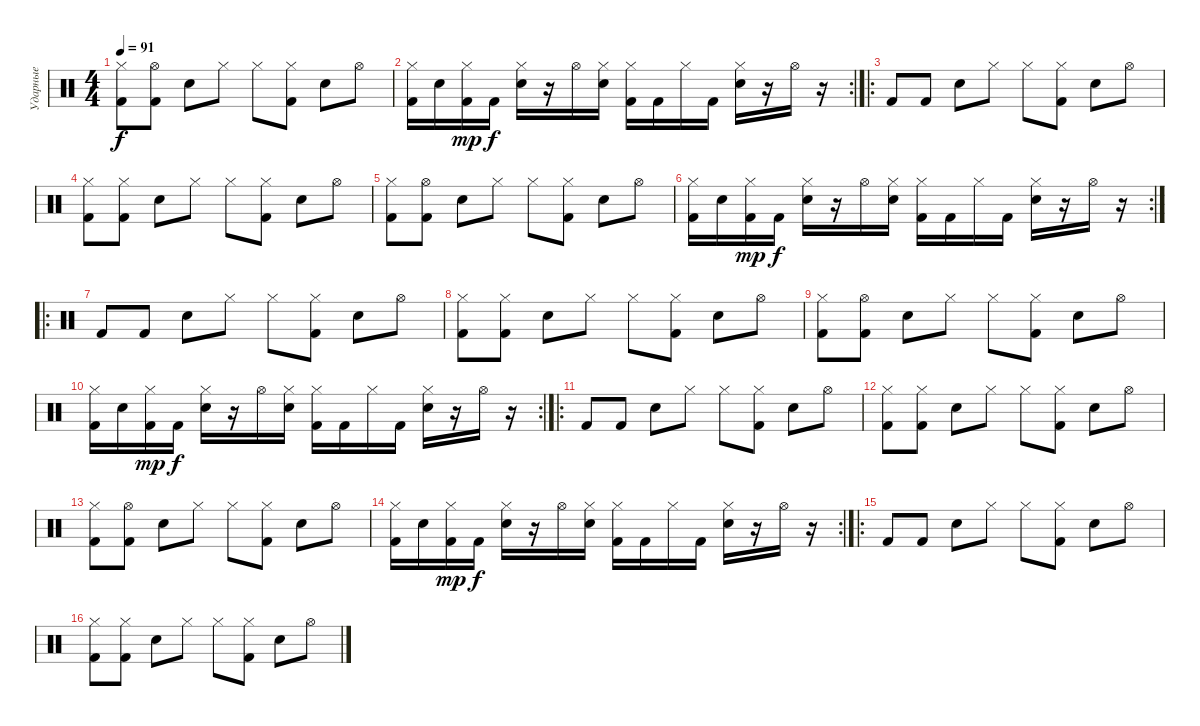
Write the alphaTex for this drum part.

\track ("Ударные" "Ударные") {instrument percussion}
\staff {score}
\articulation defaults
\ts (4 4)
\tempo 91
\clef neutral
\ks c
("Hi-Hat (closed)" "Kick (hit) 2").8{dy f} ("Hi-Hat (open)" "Kick (hit) 2").8 "Snare (hit) 2".8 "Hi-Hat (closed)".8 "Hi-Hat (closed)".8 ("Hi-Hat (closed)" "Kick (hit) 2").8 "Snare (hit) 2".8 "Hi-Hat (open)".8 |
\rc 2
("Hi-Hat (closed)" "Kick (hit) 2").16 "Snare (hit) 2".16 ("Hi-Hat (closed)" "Kick (hit) 2").16{dy mp} "Kick (hit) 2".16{dy f} ("Hi-Hat (closed)" "Snare (hit) 2").16 r.16 "Hi-Hat (open)".16 ("Hi-Hat (closed)" "Snare (hit) 2").16 ("Hi-Hat (closed)" "Kick (hit) 2").16 "Kick (hit) 2".16 "Hi-Hat (closed)".16 "Kick (hit) 2".16 ("Hi-Hat (closed)" "Snare (hit) 2").16 r.16 "Hi-Hat (open)".16 r.16 |
\ro "Kick (hit) 2".8 "Kick (hit) 2".8 "Snare (hit) 2".8 "Hi-Hat (closed)".8 "Hi-Hat (closed)".8
("Hi-Hat (closed)" "Kick (hit) 2").8 "Snare (hit) 2".8 "Hi-Hat (open)".8 |
("Hi-Hat (closed)" "Kick (hit) 2").8 ("Hi-Hat (closed)" "Kick (hit) 2").8 "Snare (hit) 2".8 "Hi-Hat (closed)".8 "Hi-Hat (closed)".8 ("Hi-Hat (closed)" "Kick (hit) 2").8 "Snare (hit) 2".8 "Hi-Hat (open)".8 |
("Hi-Hat (closed)" "Kick (hit) 2").8 ("Hi-Hat (open)" "Kick (hit) 2").8 "Snare (hit) 2".8 "Hi-Hat (closed)".8 "Hi-Hat (closed)".8 ("Hi-Hat (closed)" "Kick (hit) 2").8 "Snare (hit) 2".8 "Hi-Hat (open)".8 |
\rc 2
("Hi-Hat (closed)" "Kick (hit) 2").16 "Snare (hit) 2".16 ("Hi-Hat (closed)" "Kick (hit) 2").16{dy mp} "Kick (hit) 2".16{dy f} ("Hi-Hat (closed)" "Snare (hit) 2").16 r.16 "Hi-Hat (open)".16 ("Hi-Hat (closed)" "Snare (hit) 2").16 ("Hi-Hat (closed)" "Kick (hit) 2").16 "Kick (hit) 2".16 "Hi-Hat (closed)".16 "Kick (hit) 2".16 ("Hi-Hat (closed)" "Snare (hit) 2").16 r.16 "Hi-Hat (open)".16 r.16 |
\ro "Kick (hit) 2".8 "Kick (hit) 2".8 "Snare (hit) 2".8 "Hi-Hat (closed)".8 "Hi-Hat (closed)".8
("Hi-Hat (closed)" "Kick (hit) 2").8 "Snare (hit) 2".8 "Hi-Hat (open)".8 |
("Hi-Hat (closed)" "Kick (hit) 2").8 ("Hi-Hat (closed)" "Kick (hit) 2").8 "Snare (hit) 2".8 "Hi-Hat (closed)".8 "Hi-Hat (closed)".8 ("Hi-Hat (closed)" "Kick (hit) 2").8 "Snare (hit) 2".8 "Hi-Hat (open)".8 |
("Hi-Hat (closed)" "Kick (hit) 2").8 ("Hi-Hat (open)" "Kick (hit) 2").8 "Snare (hit) 2".8 "Hi-Hat (closed)".8 "Hi-Hat (closed)".8 ("Hi-Hat (closed)" "Kick (hit) 2").8 "Snare (hit) 2".8 "Hi-Hat (open)".8 |
\rc 2
("Hi-Hat (closed)" "Kick (hit) 2").16 "Snare (hit) 2".16 ("Hi-Hat (closed)" "Kick (hit) 2").16{dy mp} "Kick (hit) 2".16{dy f} ("Hi-Hat (closed)" "Snare (hit) 2").16 r.16 "Hi-Hat (open)".16 ("Hi-Hat (closed)" "Snare (hit) 2").16 ("Hi-Hat (closed)" "Kick (hit) 2").16 "Kick (hit) 2".16 "Hi-Hat (closed)".16 "Kick (hit) 2".16 ("Hi-Hat (closed)" "Snare (hit) 2").16 r.16 "Hi-Hat (open)".16 r.16 |
\ro "Kick (hit) 2".8 "Kick (hit) 2".8 "Snare (hit) 2".8 "Hi-Hat (closed)".8 "Hi-Hat (closed)".8
("Hi-Hat (closed)" "Kick (hit) 2").8 "Snare (hit) 2".8 "Hi-Hat (open)".8 |
("Hi-Hat (closed)" "Kick (hit) 2").8 ("Hi-Hat (closed)" "Kick (hit) 2").8 "Snare (hit) 2".8 "Hi-Hat (closed)".8 "Hi-Hat (closed)".8 ("Hi-Hat (closed)" "Kick (hit) 2").8 "Snare (hit) 2".8 "Hi-Hat (open)".8 |
("Hi-Hat (closed)" "Kick (hit) 2").8 ("Hi-Hat (open)" "Kick (hit) 2").8 "Snare (hit) 2".8 "Hi-Hat (closed)".8 "Hi-Hat (closed)".8 ("Hi-Hat (closed)" "Kick (hit) 2").8 "Snare (hit) 2".8 "Hi-Hat (open)".8 |
\rc 2
("Hi-Hat (closed)" "Kick (hit) 2").16 "Snare (hit) 2".16 ("Hi-Hat (closed)" "Kick (hit) 2").16{dy mp} "Kick (hit) 2".16{dy f} ("Hi-Hat (closed)" "Snare (hit) 2").16 r.16 "Hi-Hat (open)".16 ("Hi-Hat (closed)" "Snare (hit) 2").16 ("Hi-Hat (closed)" "Kick (hit) 2").16 "Kick (hit) 2".16 "Hi-Hat (closed)".16 "Kick (hit) 2".16 ("Hi-Hat (closed)" "Snare (hit) 2").16 r.16 "Hi-Hat (open)".16 r.16 |
\ro "Kick (hit) 2".8 "Kick (hit) 2".8 "Snare (hit) 2".8 "Hi-Hat (closed)".8 "Hi-Hat (closed)".8
("Hi-Hat (closed)" "Kick (hit) 2").8 "Snare (hit) 2".8 "Hi-Hat (open)".8 |
("Hi-Hat (closed)" "Kick (hit) 2").8 ("Hi-Hat (closed)" "Kick (hit) 2").8 "Snare (hit) 2".8 "Hi-Hat (closed)".8 "Hi-Hat (closed)".8 ("Hi-Hat (closed)" "Kick (hit) 2").8 "Snare (hit) 2".8 "Hi-Hat (open)".8
